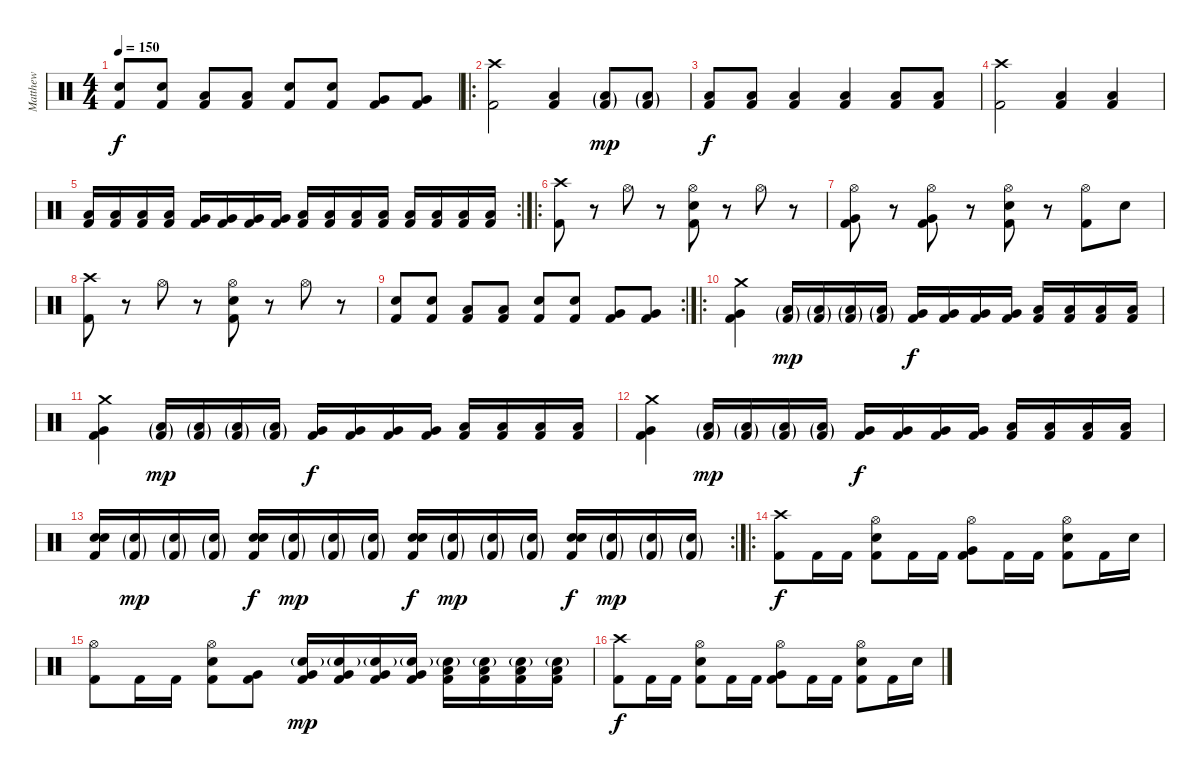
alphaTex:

\track ("Matthew" "Matthew") {instrument percussion}
\staff {score}
\articulation defaults
\ts (4 4)
\tempo 150
\clef neutral
\ks c
("Snare (hit) 2" "Kick (hit) 2").8{dy f} ("Snare (hit) 2" "Kick (hit) 2").8 ("Low Tom (hit)" "Kick (hit) 2").8 ("Low Tom (hit)" "Kick (hit) 2").8 ("Snare (hit) 2" "Kick (hit) 2").8 ("Snare (hit) 2" "Kick (hit) 2").8 ("Very Low Tom (hit)" "Kick (hit) 2").8 ("Very Low Tom (hit)" "Kick (hit) 2").8 |
\ro
("Crash high (hit)" "Kick (hit) 2").2 ("Low Tom (hit)" "Kick (hit) 2").4 ("Low Tom (hit)"{g} "Kick (hit) 2"{g}).8{dy mp} ("Low Tom (hit)"{g} "Kick (hit) 2"{g}).8 |
("Low Tom (hit)" "Kick (hit) 2").8{dy f} ("Low Tom (hit)" "Kick (hit) 2").8 ("Low Tom (hit)" "Kick (hit) 2").4 ("Low Tom (hit)" "Kick (hit) 2").4 ("Low Tom (hit)" "Kick (hit) 2").8 ("Low Tom (hit)" "Kick (hit) 2").8 |
("Crash high (hit)" "Kick (hit) 2").2 ("Low Tom (hit)" "Kick (hit) 2").4 ("Low Tom (hit)" "Kick (hit) 2").4 |
\rc 2
("Low Tom (hit)" "Kick (hit) 2").16 ("Low Tom (hit)" "Kick (hit) 2").16 ("Low Tom (hit)" "Kick (hit) 2").16 ("Low Tom (hit)" "Kick (hit) 2").16 ("Very Low Tom (hit)" "Kick (hit) 2").16 ("Very Low Tom (hit)" "Kick (hit) 2").16 ("Very Low Tom (hit)" "Kick (hit) 2").16 ("Very Low Tom (hit)" "Kick (hit) 2").16 ("Low Tom (hit)" "Kick (hit) 2").16 ("Low Tom (hit)" "Kick (hit) 2").16 ("Low Tom (hit)" "Kick (hit) 2").16 ("Low Tom (hit)" "Kick (hit) 2").16 ("Low Floor Tom (hit)" "Kick (hit) 2").16 ("Low Floor Tom (hit)" "Kick (hit) 2").16 ("Low Floor Tom (hit)" "Kick (hit) 2").16 ("Low Floor Tom (hit)" "Kick (hit) 2").16 |
\ro
("Crash high (hit)" "Kick (hit) 2").8 r.8 "Hi-Hat (open)".8 r.8 ("Hi-Hat (open)" "Snare (hit) 2" "Kick (hit) 2").8 r.8 "Hi-Hat (open)".8 r.8 |
("Hi-Hat (open)" "Very Low Tom (hit)" "Kick (hit) 2").8 r.8 ("Hi-Hat (open)" "Very Low Tom (hit)" "Kick (hit) 2").8 r.8 ("Hi-Hat (open)" "Snare (hit) 2" "Kick (hit) 2").8 r.8 ("Hi-Hat (open)" "Kick (hit) 2").8 "Snare (hit) 2".8 |
("Crash high (hit)" "Kick (hit) 2").8 r.8 "Hi-Hat (open)".8 r.8 ("Hi-Hat (open)" "Snare (hit) 2" "Kick (hit) 2").8 r.8 "Hi-Hat (open)".8 r.8 |
\rc 2
("Electric Snare (hit)" "Kick (hit) 2").8 ("Electric Snare (hit)" "Kick (hit) 2").8 ("Low Tom (hit)" "Kick (hit) 2").8 ("Low Tom (hit)" "Kick (hit) 2").8 ("Electric Snare (hit)" "Kick (hit) 2").8 ("Electric Snare (hit)" "Kick (hit) 2").8 ("Very Low Tom (hit)" "Kick (hit) 2").8 ("Very Low Tom (hit)" "Kick (hit) 2").8 |
\ro
("Crash medium (hit)" "Very Low Tom (hit)" "Kick (hit) 2").4 ("Low Tom (hit)"{g} "Kick (hit) 2"{g}).16{dy mp} ("Low Tom (hit)"{g} "Kick (hit) 2"{g}).16 ("Low Tom (hit)"{g} "Kick (hit) 2"{g}).16 ("Low Tom (hit)"{g} "Kick (hit) 2"{g}).16 ("Very Low Tom (hit)" "Kick (hit) 2").16{dy f} ("Very Low Tom (hit)" "Kick (hit) 2").16 ("Very Low Tom (hit)" "Kick (hit) 2").16 ("Very Low Tom (hit)" "Kick (hit) 2").16 ("Low Floor Tom (hit)" "Kick (hit) 2").16 ("Low Floor Tom (hit)" "Kick (hit) 2").16 ("Low Floor Tom (hit)" "Kick (hit) 2").16 ("Low Floor Tom (hit)" "Kick (hit) 2").16 |
("Crash medium (hit)" "Very Low Tom (hit)" "Kick (hit) 2").4 ("Low Tom (hit)"{g} "Kick (hit) 2"{g}).16{dy mp} ("Low Tom (hit)"{g} "Kick (hit) 2"{g}).16 ("Low Tom (hit)"{g} "Kick (hit) 2"{g}).16 ("Low Tom (hit)"{g} "Kick (hit) 2"{g}).16 ("Very Low Tom (hit)" "Kick (hit) 2").16{dy f} ("Very Low Tom (hit)" "Kick (hit) 2").16 ("Very Low Tom (hit)" "Kick (hit) 2").16 ("Very Low Tom (hit)" "Kick (hit) 2").16 ("Low Floor Tom (hit)" "Kick (hit) 2").16 ("Low Floor Tom (hit)" "Kick (hit) 2").16 ("Low Floor Tom (hit)" "Kick (hit) 2").16 ("Low Floor Tom (hit)" "Kick (hit) 2").16 |
("Crash medium (hit)" "Very Low Tom (hit)" "Kick (hit) 2").4 ("Low Tom (hit)"{g} "Kick (hit) 2"{g}).16{dy mp} ("Low Tom (hit)"{g} "Kick (hit) 2"{g}).16 ("Low Tom (hit)"{g} "Kick (hit) 2"{g}).16 ("Low Tom (hit)"{g} "Kick (hit) 2"{g}).16 ("Very Low Tom (hit)" "Kick (hit) 2").16{dy f} ("Very Low Tom (hit)" "Kick (hit) 2").16 ("Very Low Tom (hit)" "Kick (hit) 2").16 ("Very Low Tom (hit)" "Kick (hit) 2").16 ("Low Floor Tom (hit)" "Kick (hit) 2").16 ("Low Floor Tom (hit)" "Kick (hit) 2").16 ("Low Floor Tom (hit)" "Kick (hit) 2").16 ("Low Floor Tom (hit)" "Kick (hit) 2").16 |
\rc 2
("Snare (hit) 2" "Snare (hit) 2" "Kick (hit) 2").16 ("Snare (hit) 2"{g} "Kick (hit) 2"{g}).16{dy mp} ("Snare (hit) 2"{g} "Kick (hit) 2"{g}).16 ("Snare (hit) 2"{g} "Kick (hit) 2"{g}).16 ("Snare (hit) 2" "Snare (hit) 2" "Kick (hit) 2").16{dy f} ("Snare (hit) 2"{g} "Kick (hit) 2"{g}).16{dy mp} ("Snare (hit) 2"{g} "Kick (hit) 2"{g}).16 ("Snare (hit) 2"{g} "Kick (hit) 2"{g}).16 ("Snare (hit) 2" "Snare (hit) 2" "Kick (hit) 2").16{dy f} ("Snare (hit) 2"{g} "Kick (hit) 2"{g}).16{dy mp} ("Snare (hit) 2"{g} "Kick (hit) 2"{g}).16 ("Snare (hit) 2"{g} "Kick (hit) 2"{g}).16 ("Snare (hit) 2" "Snare (hit) 2" "Kick (hit) 2").16{dy f} ("Snare (hit) 2"{g} "Kick (hit) 2"{g}).16{dy mp} ("Snare (hit) 2"{g} "Kick (hit) 2"{g}).16 ("Snare (hit) 2"{g} "Kick (hit) 2"{g}).16 |
\ro
("Crash high (hit)" "Kick (hit) 2").8{dy f} "Kick (hit) 2".16 "Kick (hit) 2".16 ("Hi-Hat (open)" "Snare (hit) 2" "Kick (hit) 2").8 "Kick (hit) 2".16 "Kick (hit) 2".16 ("Hi-Hat (open)" "Very Low Tom (hit)" "Kick (hit) 2").8 "Kick (hit) 2".16 "Kick (hit) 2".16 ("Hi-Hat (open)" "Snare (hit) 2" "Kick (hit) 2").8 "Kick (hit) 2".16 "Snare (hit) 2".16 |
("Hi-Hat (open)" "Kick (hit) 2").8 "Kick (hit) 2".16 "Kick (hit) 2".16 ("Hi-Hat (open)" "Snare (hit) 2" "Kick (hit) 2").8 ("Very Low Tom (hit)" "Kick (hit) 2").8 ("Snare (hit) 2"{g} "Very Low Tom (hit)" "Kick (hit) 2").16{dy mp} ("Snare (hit) 2"{g} "Very Low Tom (hit)" "Kick (hit) 2").16 ("Snare (hit) 2"{g} "Very Low Tom (hit)" "Kick (hit) 2").16 ("Snare (hit) 2"{g} "Very Low Tom (hit)" "Kick (hit) 2").16 ("Snare (hit) 2"{g} "Low Floor Tom (hit)" "Kick (hit) 2").16 ("Snare (hit) 2"{g} "Low Floor Tom (hit)" "Kick (hit) 2").16 ("Snare (hit) 2"{g} "Low Floor Tom (hit)" "Kick (hit) 2").16 ("Snare (hit) 2"{g} "Low Floor Tom (hit)" "Kick (hit) 2").16 |
("Crash high (hit)" "Kick (hit) 2").8{dy f} "Kick (hit) 2".16 "Kick (hit) 2".16 ("Hi-Hat (open)" "Snare (hit) 2" "Kick (hit) 2").8 "Kick (hit) 2".16 "Kick (hit) 2".16 ("Hi-Hat (open)" "Very Low Tom (hit)" "Kick (hit) 2").8 "Kick (hit) 2".16 "Kick (hit) 2".16 ("Hi-Hat (open)" "Snare (hit) 2" "Kick (hit) 2").8 "Kick (hit) 2".16 "Snare (hit) 2".16
